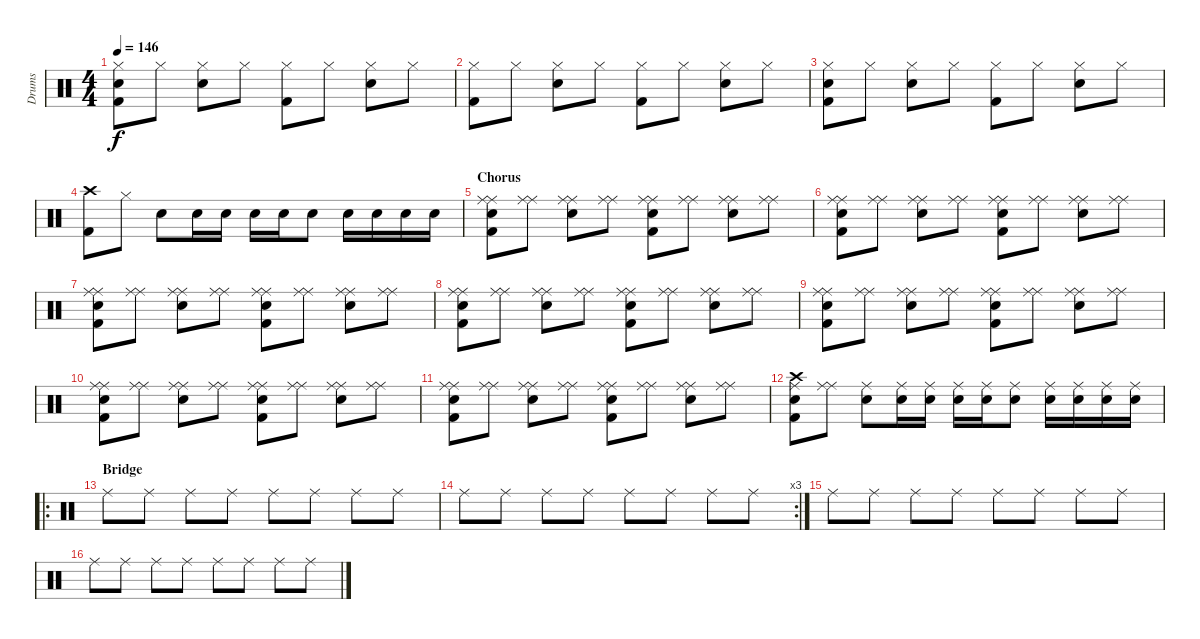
\track ("Drums" "Drums") {instrument percussion}
\staff {score}
\articulation defaults
\ts (4 4)
\tempo 146
\clef neutral
\ks c
("Hi-Hat (closed)" "Snare (hit) 2" "Kick (hit) 2").8{dy f} "Hi-Hat (closed)".8 ("Hi-Hat (closed)" "Snare (hit) 2").8 "Hi-Hat (closed)".8 ("Hi-Hat (closed)" "Kick (hit) 2").8 "Hi-Hat (closed)".8 ("Hi-Hat (closed)" "Snare (hit) 2").8 "Hi-Hat (closed)".8 |
("Hi-Hat (closed)" "Kick (hit) 2").8 "Hi-Hat (closed)".8 ("Hi-Hat (closed)" "Snare (hit) 2").8 "Hi-Hat (closed)".8 ("Hi-Hat (closed)" "Kick (hit) 2").8 "Hi-Hat (closed)".8 ("Hi-Hat (closed)" "Snare (hit) 2").8 "Hi-Hat (closed)".8 |
("Hi-Hat (closed)" "Snare (hit) 2" "Kick (hit) 2").8 "Hi-Hat (closed)".8 ("Hi-Hat (closed)" "Snare (hit) 2").8 "Hi-Hat (closed)".8 ("Hi-Hat (closed)" "Kick (hit) 2").8 "Hi-Hat (closed)".8 ("Hi-Hat (closed)" "Snare (hit) 2").8 "Hi-Hat (closed)".8 |
("Crash high (hit)" "Kick (hit) 2").8 "Hi-Hat (closed)".8 "Snare (hit) 2".8 "Snare (hit) 2".16 "Snare (hit) 2".16 "Snare (hit) 2".16 "Snare (hit) 2".16 "Snare (hit) 2".8 "Snare (hit) 2".16 "Snare (hit) 2".16 "Snare (hit) 2".16 "Snare (hit) 2".16 |
\section ("" "Chorus")
("Ride (middle)" "Ride (middle)" "Snare (hit) 2" "Kick (hit) 2").8 ("Ride (middle)" "Ride (middle)").8 ("Ride (middle)" "Ride (middle)" "Snare (hit) 2").8 ("Ride (middle)" "Ride (middle)").8 ("Ride (middle)" "Ride (middle)" "Snare (hit) 2" "Kick (hit) 2").8 ("Ride (middle)" "Ride (middle)").8 ("Ride (middle)" "Ride (middle)" "Snare (hit) 2").8 ("Ride (middle)" "Ride (middle)").8 |
("Ride (middle)" "Ride (middle)" "Snare (hit) 2" "Kick (hit) 2").8 ("Ride (middle)" "Ride (middle)").8 ("Ride (middle)" "Ride (middle)" "Snare (hit) 2").8 ("Ride (middle)" "Ride (middle)").8 ("Ride (middle)" "Ride (middle)" "Snare (hit) 2" "Kick (hit) 2").8 ("Ride (middle)" "Ride (middle)").8 ("Ride (middle)" "Ride (middle)" "Snare (hit) 2").8 ("Ride (middle)" "Ride (middle)").8 |
("Ride (middle)" "Ride (middle)" "Snare (hit) 2" "Kick (hit) 2").8 ("Ride (middle)" "Ride (middle)").8 ("Ride (middle)" "Ride (middle)" "Snare (hit) 2").8 ("Ride (middle)" "Ride (middle)").8 ("Ride (middle)" "Ride (middle)" "Snare (hit) 2" "Kick (hit) 2").8 ("Ride (middle)" "Ride (middle)").8 ("Ride (middle)" "Ride (middle)" "Snare (hit) 2").8 ("Ride (middle)" "Ride (middle)").8 |
("Ride (middle)" "Ride (middle)" "Snare (hit) 2" "Kick (hit) 2").8 ("Ride (middle)" "Ride (middle)").8 ("Ride (middle)" "Ride (middle)" "Snare (hit) 2").8 ("Ride (middle)" "Ride (middle)").8 ("Ride (middle)" "Ride (middle)" "Snare (hit) 2" "Kick (hit) 2").8 ("Ride (middle)" "Ride (middle)").8 ("Ride (middle)" "Ride (middle)" "Snare (hit) 2").8 ("Ride (middle)" "Ride (middle)").8 |
("Ride (middle)" "Ride (middle)" "Snare (hit) 2" "Kick (hit) 2").8 ("Ride (middle)" "Ride (middle)").8 ("Ride (middle)" "Ride (middle)" "Snare (hit) 2").8 ("Ride (middle)" "Ride (middle)").8 ("Ride (middle)" "Ride (middle)" "Snare (hit) 2" "Kick (hit) 2").8 ("Ride (middle)" "Ride (middle)").8 ("Ride (middle)" "Ride (middle)" "Snare (hit) 2").8 ("Ride (middle)" "Ride (middle)").8 |
("Ride (middle)" "Ride (middle)" "Snare (hit) 2" "Kick (hit) 2").8 ("Ride (middle)" "Ride (middle)").8 ("Ride (middle)" "Ride (middle)" "Snare (hit) 2").8 ("Ride (middle)" "Ride (middle)").8 ("Ride (middle)" "Ride (middle)" "Snare (hit) 2" "Kick (hit) 2").8 ("Ride (middle)" "Ride (middle)").8 ("Ride (middle)" "Ride (middle)" "Snare (hit) 2").8 ("Ride (middle)" "Ride (middle)").8 |
("Ride (middle)" "Ride (middle)" "Snare (hit) 2" "Kick (hit) 2").8 ("Ride (middle)" "Ride (middle)").8 ("Ride (middle)" "Ride (middle)" "Snare (hit) 2").8 ("Ride (middle)" "Ride (middle)").8 ("Ride (middle)" "Ride (middle)" "Snare (hit) 2" "Kick (hit) 2").8 ("Ride (middle)" "Ride (middle)").8 ("Ride (middle)" "Ride (middle)" "Snare (hit) 2").8 ("Ride (middle)" "Ride (middle)").8 |
("Crash high (hit)" "Ride (middle)" "Snare (hit) 2" "Kick (hit) 2").8 ("Ride (middle)" "Ride (middle)").8 ("Ride (middle)" "Snare (hit) 2").8 ("Ride (middle)" "Snare (hit) 2").16 ("Ride (middle)" "Snare (hit) 2").16 ("Ride (middle)" "Snare (hit) 2").16 ("Ride (middle)" "Snare (hit) 2").16 ("Ride (middle)" "Snare (hit) 2").8 ("Ride (middle)" "Snare (hit) 2").16 ("Ride (middle)" "Snare (hit) 2").16 ("Ride (middle)" "Snare (hit) 2").16 ("Ride (middle)" "Snare (hit) 2").16 |
\ro
\section ("" "Bridge")
"Ride (middle)".8 "Ride (middle)".8 "Ride (middle)".8 "Ride (middle)".8 "Ride (middle)".8 "Ride (middle)".8 "Ride (middle)".8 "Ride (middle)".8 |
\rc 3 "Ride (middle)".8 "Ride (middle)".8 "Ride (middle)".8 "Ride (middle)".8 "Ride (middle)".8 "Ride (middle)".8 "Ride (middle)".8 "Ride (middle)".8
|
"Ride (middle)".8 "Ride (middle)".8 "Ride (middle)".8 "Ride (middle)".8 "Ride (middle)".8 "Ride (middle)".8 "Ride (middle)".8 "Ride (middle)".8 |
"Ride (middle)".8 "Ride (middle)".8 "Ride (middle)".8 "Ride (middle)".8 "Ride (middle)".8 "Ride (middle)".8 "Ride (middle)".8 "Ride (middle)".8
